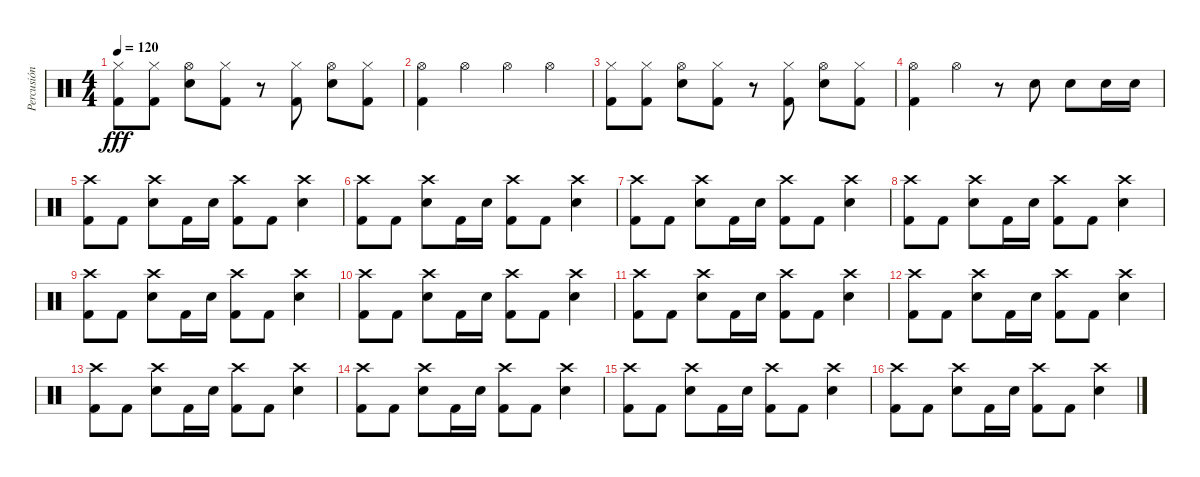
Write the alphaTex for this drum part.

\track ("Percusión" "Percusión") {instrument percussion}
\staff {score}
\articulation defaults
\ts (4 4)
\tempo 120
\clef neutral
\ks c
("Hi-Hat (closed)" "Kick (hit) 2").8{dy fff} ("Hi-Hat (closed)" "Kick (hit) 2").8 ("Hi-Hat (open)" "Snare (hit) 2").8 ("Hi-Hat (closed)" "Kick (hit) 2").8 r.8 ("Hi-Hat (closed)" "Kick (hit) 2").8 ("Hi-Hat (open)" "Snare (hit) 2").8 ("Hi-Hat (closed)" "Kick (hit) 2").8 |
("Hi-Hat (open)" "Kick (hit) 2").4 "Hi-Hat (open)".4 "Hi-Hat (open)".4 "Hi-Hat (open)".4 |
("Hi-Hat (closed)" "Kick (hit) 2").8 ("Hi-Hat (closed)" "Kick (hit) 2").8 ("Hi-Hat (open)" "Snare (hit) 2").8 ("Hi-Hat (closed)" "Kick (hit) 2").8 r.8 ("Hi-Hat (closed)" "Kick (hit) 2").8 ("Hi-Hat (open)" "Snare (hit) 2").8 ("Hi-Hat (closed)" "Kick (hit) 2").8 |
("Hi-Hat (open)" "Kick (hit) 2").4 "Hi-Hat (open)".4 r.8 "Snare (hit) 2".8 "Snare (hit) 2".8 "Snare (hit) 2".16 "Snare (hit) 2".16 |
("Crash high (hit)" "Kick (hit) 2").8 "Kick (hit) 2".8 ("Crash high (hit)" "Snare (hit) 2").8 "Kick (hit) 2".16 "Snare (hit) 2".16 ("Crash high (hit)" "Kick (hit) 2").8 "Kick (hit) 2".8 ("Crash high (hit)" "Snare (hit) 2").4 |
("Crash high (hit)" "Kick (hit) 2").8 "Kick (hit) 2".8 ("Crash high (hit)" "Snare (hit) 2").8 "Kick (hit) 2".16 "Snare (hit) 2".16 ("Crash high (hit)" "Kick (hit) 2").8 "Kick (hit) 2".8 ("Crash high (hit)" "Snare (hit) 2").4 |
("Crash high (hit)" "Kick (hit) 2").8 "Kick (hit) 2".8 ("Crash high (hit)" "Snare (hit) 2").8 "Kick (hit) 2".16 "Snare (hit) 2".16 ("Crash high (hit)" "Kick (hit) 2").8 "Kick (hit) 2".8 ("Crash high (hit)" "Snare (hit) 2").4 |
("Crash high (hit)" "Kick (hit) 2").8 "Kick (hit) 2".8 ("Crash high (hit)" "Snare (hit) 2").8 "Kick (hit) 2".16 "Snare (hit) 2".16 ("Crash high (hit)" "Kick (hit) 2").8 "Kick (hit) 2".8 ("Crash high (hit)" "Snare (hit) 2").4 |
("Crash high (hit)" "Kick (hit) 2").8 "Kick (hit) 2".8 ("Crash high (hit)" "Snare (hit) 2").8 "Kick (hit) 2".16 "Snare (hit) 2".16 ("Crash high (hit)" "Kick (hit) 2").8 "Kick (hit) 2".8 ("Crash high (hit)" "Snare (hit) 2").4 |
("Crash high (hit)" "Kick (hit) 2").8 "Kick (hit) 2".8 ("Crash high (hit)" "Snare (hit) 2").8 "Kick (hit) 2".16 "Snare (hit) 2".16 ("Crash high (hit)" "Kick (hit) 2").8 "Kick (hit) 2".8 ("Crash high (hit)" "Snare (hit) 2").4 |
("Crash high (hit)" "Kick (hit) 2").8 "Kick (hit) 2".8 ("Crash high (hit)" "Snare (hit) 2").8 "Kick (hit) 2".16 "Snare (hit) 2".16 ("Crash high (hit)" "Kick (hit) 2").8 "Kick (hit) 2".8 ("Crash high (hit)" "Snare (hit) 2").4 |
("Crash high (hit)" "Kick (hit) 2").8 "Kick (hit) 2".8 ("Crash high (hit)" "Snare (hit) 2").8 "Kick (hit) 2".16 "Snare (hit) 2".16 ("Crash high (hit)" "Kick (hit) 2").8 "Kick (hit) 2".8 ("Crash high (hit)" "Snare (hit) 2").4 |
("Crash high (hit)" "Kick (hit) 2").8 "Kick (hit) 2".8 ("Crash high (hit)" "Snare (hit) 2").8 "Kick (hit) 2".16 "Snare (hit) 2".16 ("Crash high (hit)" "Kick (hit) 2").8 "Kick (hit) 2".8 ("Crash high (hit)" "Snare (hit) 2").4 |
("Crash high (hit)" "Kick (hit) 2").8 "Kick (hit) 2".8 ("Crash high (hit)" "Snare (hit) 2").8 "Kick (hit) 2".16 "Snare (hit) 2".16 ("Crash high (hit)" "Kick (hit) 2").8 "Kick (hit) 2".8 ("Crash high (hit)" "Snare (hit) 2").4 |
("Crash high (hit)" "Kick (hit) 2").8 "Kick (hit) 2".8 ("Crash high (hit)" "Snare (hit) 2").8 "Kick (hit) 2".16 "Snare (hit) 2".16 ("Crash high (hit)" "Kick (hit) 2").8 "Kick (hit) 2".8 ("Crash high (hit)" "Snare (hit) 2").4 |
("Crash high (hit)" "Kick (hit) 2").8 "Kick (hit) 2".8 ("Crash high (hit)" "Snare (hit) 2").8 "Kick (hit) 2".16 "Snare (hit) 2".16 ("Crash high (hit)" "Kick (hit) 2").8 "Kick (hit) 2".8 ("Crash high (hit)" "Snare (hit) 2").4
